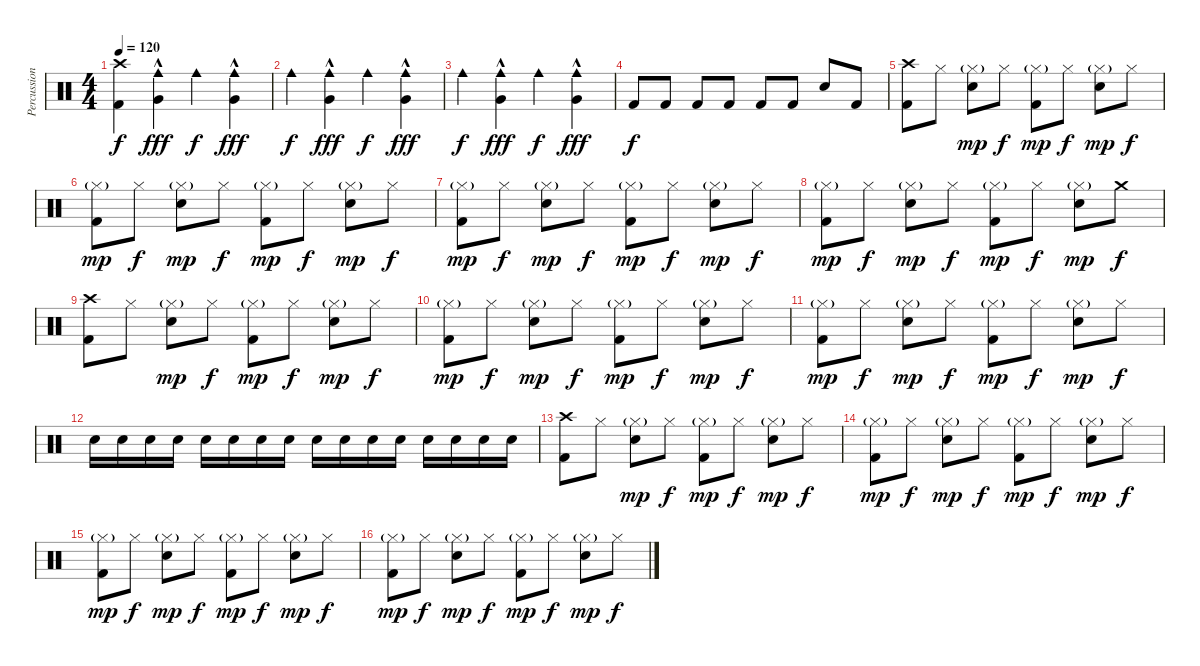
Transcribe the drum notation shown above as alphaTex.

\track ("Percussion" "Percussion") {instrument percussion}
\staff {score}
\articulation defaults
\ts (4 4)
\tempo 120
\clef neutral
\ks c
("Crash high (hit)" "Kick (hit) 2").4{dy f} ("Cowbell medium (hit)" "Very Low Tom (hit)"{hac}).4{dy fff} "Cowbell medium (hit)".4{dy f} ("Cowbell medium (hit)" "Very Low Tom (hit)"{hac}).4{dy fff} |
"Cowbell medium (hit)".4{dy f} ("Cowbell medium (hit)" "Very Low Tom (hit)"{hac}).4{dy fff} "Cowbell medium (hit)".4{dy f} ("Cowbell medium (hit)" "Very Low Tom (hit)"{hac}).4{dy fff} |
"Cowbell medium (hit)".4{dy f} ("Cowbell medium (hit)" "Very Low Tom (hit)"{hac}).4{dy fff} "Cowbell medium (hit)".4{dy f} ("Cowbell medium (hit)" "Very Low Tom (hit)"{hac}).4{dy fff} |
"Kick (hit) 2".8{dy f volume 9} "Kick (hit) 2".8{volume 13} "Kick (hit) 2".8 "Kick (hit) 2".8 "Kick (hit) 2".8 "Kick (hit) 2".8 "Electric Snare (hit)".8 "Kick (hit) 2".8 |
("Crash high (hit)" "Kick (hit) 2").8 "Hi-Hat (closed)".8 ("Hi-Hat (closed)"{g} "Electric Snare (hit)").8{dy mp} "Hi-Hat (closed)".8{dy f} ("Hi-Hat (closed)"{g} "Kick (hit) 2").8{dy mp} "Hi-Hat (closed)".8{dy f} ("Hi-Hat (closed)"{g} "Electric Snare (hit)").8{dy mp} "Hi-Hat (closed)".8{dy f} |
("Hi-Hat (closed)"{g} "Kick (hit) 2").8{dy mp} "Hi-Hat (closed)".8{dy f} ("Hi-Hat (closed)"{g} "Electric Snare (hit)").8{dy mp} "Hi-Hat (closed)".8{dy f} ("Hi-Hat (closed)"{g} "Kick (hit) 2").8{dy mp} "Hi-Hat (closed)".8{dy f} ("Hi-Hat (closed)"{g} "Electric Snare (hit)").8{dy mp} "Hi-Hat (closed)".8{dy f} |
("Hi-Hat (closed)"{g} "Kick (hit) 2").8{dy mp} "Hi-Hat (closed)".8{dy f} ("Hi-Hat (closed)"{g} "Electric Snare (hit)").8{dy mp} "Hi-Hat (closed)".8{dy f} ("Hi-Hat (closed)"{g} "Kick (hit) 2").8{dy mp} "Hi-Hat (closed)".8{dy f} ("Hi-Hat (closed)"{g} "Electric Snare (hit)").8{dy mp} "Hi-Hat (closed)".8{dy f} |
("Hi-Hat (closed)"{g} "Kick (hit) 2").8{dy mp} "Hi-Hat (closed)".8{dy f} ("Hi-Hat (closed)"{g} "Electric Snare (hit)").8{dy mp} "Hi-Hat (closed)".8{dy f} ("Hi-Hat (closed)"{g} "Kick (hit) 2").8{dy mp} "Hi-Hat (closed)".8{dy f} ("Hi-Hat (closed)"{g} "Electric Snare (hit)").8{dy mp} "Crash medium (hit)".8{dy f} |
("Crash high (hit)" "Kick (hit) 2").8 "Hi-Hat (closed)".8 ("Hi-Hat (closed)"{g} "Electric Snare (hit)").8{dy mp} "Hi-Hat (closed)".8{dy f} ("Hi-Hat (closed)"{g} "Kick (hit) 2").8{dy mp} "Hi-Hat (closed)".8{dy f} ("Hi-Hat (closed)"{g} "Electric Snare (hit)").8{dy mp} "Hi-Hat (closed)".8{dy f} |
("Hi-Hat (closed)"{g} "Kick (hit) 2").8{dy mp} "Hi-Hat (closed)".8{dy f} ("Hi-Hat (closed)"{g} "Electric Snare (hit)").8{dy mp} "Hi-Hat (closed)".8{dy f} ("Hi-Hat (closed)"{g} "Kick (hit) 2").8{dy mp} "Hi-Hat (closed)".8{dy f} ("Hi-Hat (closed)"{g} "Electric Snare (hit)").8{dy mp} "Hi-Hat (closed)".8{dy f} |
("Hi-Hat (closed)"{g} "Kick (hit) 2").8{dy mp} "Hi-Hat (closed)".8{dy f} ("Hi-Hat (closed)"{g} "Electric Snare (hit)").8{dy mp} "Hi-Hat (closed)".8{dy f} ("Hi-Hat (closed)"{g} "Kick (hit) 2").8{dy mp} "Hi-Hat (closed)".8{dy f} ("Hi-Hat (closed)"{g} "Electric Snare (hit)").8{dy mp} "Hi-Hat (closed)".8{dy f} |
"Electric Snare (hit)".16 "Electric Snare (hit)".16 "Electric Snare (hit)".16 "Electric Snare (hit)".16 "Electric Snare (hit)".16 "Electric Snare (hit)".16 "Electric Snare (hit)".16 "Electric Snare (hit)".16 "Electric Snare (hit)".16 "Electric Snare (hit)".16 "Electric Snare (hit)".16 "Electric Snare (hit)".16 "Electric Snare (hit)".16 "Electric Snare (hit)".16 "Electric Snare (hit)".16 "Electric Snare (hit)".16 |
("Crash high (hit)" "Kick (hit) 2").8 "Hi-Hat (closed)".8 ("Hi-Hat (closed)"{g} "Electric Snare (hit)").8{dy mp} "Hi-Hat (closed)".8{dy f} ("Hi-Hat (closed)"{g} "Kick (hit) 2").8{dy mp} "Hi-Hat (closed)".8{dy f} ("Hi-Hat (closed)"{g} "Electric Snare (hit)").8{dy mp} "Hi-Hat (closed)".8{dy f} |
("Hi-Hat (closed)"{g} "Kick (hit) 2").8{dy mp} "Hi-Hat (closed)".8{dy f} ("Hi-Hat (closed)"{g} "Electric Snare (hit)").8{dy mp} "Hi-Hat (closed)".8{dy f} ("Hi-Hat (closed)"{g} "Kick (hit) 2").8{dy mp} "Hi-Hat (closed)".8{dy f} ("Hi-Hat (closed)"{g} "Electric Snare (hit)").8{dy mp} "Hi-Hat (closed)".8{dy f} |
("Hi-Hat (closed)"{g} "Kick (hit) 2").8{dy mp} "Hi-Hat (closed)".8{dy f} ("Hi-Hat (closed)"{g} "Electric Snare (hit)").8{dy mp} "Hi-Hat (closed)".8{dy f} ("Hi-Hat (closed)"{g} "Kick (hit) 2").8{dy mp} "Hi-Hat (closed)".8{dy f} ("Hi-Hat (closed)"{g} "Electric Snare (hit)").8{dy mp} "Hi-Hat (closed)".8{dy f} |
("Hi-Hat (closed)"{g} "Kick (hit) 2").8{dy mp} "Hi-Hat (closed)".8{dy f} ("Hi-Hat (closed)"{g} "Electric Snare (hit)").8{dy mp} "Hi-Hat (closed)".8{dy f} ("Hi-Hat (closed)"{g} "Kick (hit) 2").8{dy mp} "Hi-Hat (closed)".8{dy f} ("Hi-Hat (closed)"{g} "Electric Snare (hit)").8{dy mp} "Hi-Hat (closed)".8{dy f}
